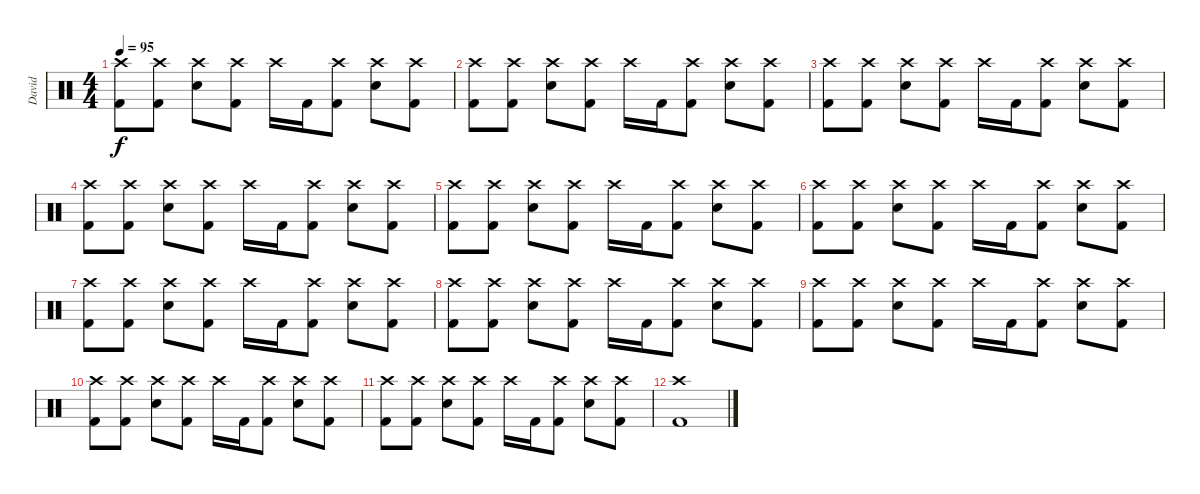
\track ("David" "David") {instrument percussion}
\staff {score}
\articulation defaults
\ts (4 4)
\tempo 95
\clef neutral
\ks c
("Crash high (hit)" "Kick (hit) 2").8{dy f} ("Crash high (hit)" "Kick (hit) 2").8 ("Crash high (hit)" "Electric Snare (hit)").8 ("Crash high (hit)" "Kick (hit) 2").8 "Crash high (hit)".16 "Kick (hit) 2".16 ("Crash high (hit)" "Kick (hit) 2").8 ("Crash high (hit)" "Electric Snare (hit)").8 ("Crash high (hit)" "Kick (hit) 2").8 |
("Crash high (hit)" "Kick (hit) 2").8 ("Crash high (hit)" "Kick (hit) 2").8 ("Crash high (hit)" "Electric Snare (hit)").8 ("Crash high (hit)" "Kick (hit) 2").8 "Crash high (hit)".16 "Kick (hit) 2".16 ("Crash high (hit)" "Kick (hit) 2").8 ("Crash high (hit)" "Electric Snare (hit)").8 ("Crash high (hit)" "Kick (hit) 2").8 |
("Crash high (hit)" "Kick (hit) 2").8 ("Crash high (hit)" "Kick (hit) 2").8 ("Crash high (hit)" "Electric Snare (hit)").8 ("Crash high (hit)" "Kick (hit) 2").8 "Crash high (hit)".16 "Kick (hit) 2".16 ("Crash high (hit)" "Kick (hit) 2").8 ("Crash high (hit)" "Electric Snare (hit)").8 ("Crash high (hit)" "Kick (hit) 2").8 |
("Crash high (hit)" "Kick (hit) 2").8 ("Crash high (hit)" "Kick (hit) 2").8 ("Crash high (hit)" "Electric Snare (hit)").8 ("Crash high (hit)" "Kick (hit) 2").8 "Crash high (hit)".16 "Kick (hit) 2".16 ("Crash high (hit)" "Kick (hit) 2").8 ("Crash high (hit)" "Electric Snare (hit)").8 ("Crash high (hit)" "Kick (hit) 2").8 |
("Crash high (hit)" "Kick (hit) 2").8 ("Crash high (hit)" "Kick (hit) 2").8 ("Crash high (hit)" "Electric Snare (hit)").8 ("Crash high (hit)" "Kick (hit) 2").8 "Crash high (hit)".16 "Kick (hit) 2".16 ("Crash high (hit)" "Kick (hit) 2").8 ("Crash high (hit)" "Electric Snare (hit)").8 ("Crash high (hit)" "Kick (hit) 2").8 |
("Crash high (hit)" "Kick (hit) 2").8 ("Crash high (hit)" "Kick (hit) 2").8 ("Crash high (hit)" "Electric Snare (hit)").8 ("Crash high (hit)" "Kick (hit) 2").8 "Crash high (hit)".16 "Kick (hit) 2".16 ("Crash high (hit)" "Kick (hit) 2").8 ("Crash high (hit)" "Electric Snare (hit)").8 ("Crash high (hit)" "Kick (hit) 2").8 |
("Crash high (hit)" "Kick (hit) 2").8 ("Crash high (hit)" "Kick (hit) 2").8 ("Crash high (hit)" "Electric Snare (hit)").8 ("Crash high (hit)" "Kick (hit) 2").8 "Crash high (hit)".16 "Kick (hit) 2".16 ("Crash high (hit)" "Kick (hit) 2").8 ("Crash high (hit)" "Electric Snare (hit)").8 ("Crash high (hit)" "Kick (hit) 2").8 |
("Crash high (hit)" "Kick (hit) 2").8 ("Crash high (hit)" "Kick (hit) 2").8 ("Crash high (hit)" "Electric Snare (hit)").8 ("Crash high (hit)" "Kick (hit) 2").8 "Crash high (hit)".16 "Kick (hit) 2".16 ("Crash high (hit)" "Kick (hit) 2").8 ("Crash high (hit)" "Electric Snare (hit)").8 ("Crash high (hit)" "Kick (hit) 2").8 |
("Crash high (hit)" "Kick (hit) 2").8 ("Crash high (hit)" "Kick (hit) 2").8 ("Crash high (hit)" "Electric Snare (hit)").8 ("Crash high (hit)" "Kick (hit) 2").8 "Crash high (hit)".16 "Kick (hit) 2".16 ("Crash high (hit)" "Kick (hit) 2").8 ("Crash high (hit)" "Electric Snare (hit)").8 ("Crash high (hit)" "Kick (hit) 2").8 |
("Crash high (hit)" "Kick (hit) 2").8 ("Crash high (hit)" "Kick (hit) 2").8 ("Crash high (hit)" "Electric Snare (hit)").8 ("Crash high (hit)" "Kick (hit) 2").8 "Crash high (hit)".16 "Kick (hit) 2".16 ("Crash high (hit)" "Kick (hit) 2").8 ("Crash high (hit)" "Electric Snare (hit)").8 ("Crash high (hit)" "Kick (hit) 2").8 |
("Crash high (hit)" "Kick (hit) 2").8 ("Crash high (hit)" "Kick (hit) 2").8 ("Crash high (hit)" "Electric Snare (hit)").8 ("Crash high (hit)" "Kick (hit) 2").8 "Crash high (hit)".16 "Kick (hit) 2".16 ("Crash high (hit)" "Kick (hit) 2").8 ("Crash high (hit)" "Electric Snare (hit)").8 ("Crash high (hit)" "Kick (hit) 2").8 |
("Crash high (hit)" "Kick (hit) 2").1
